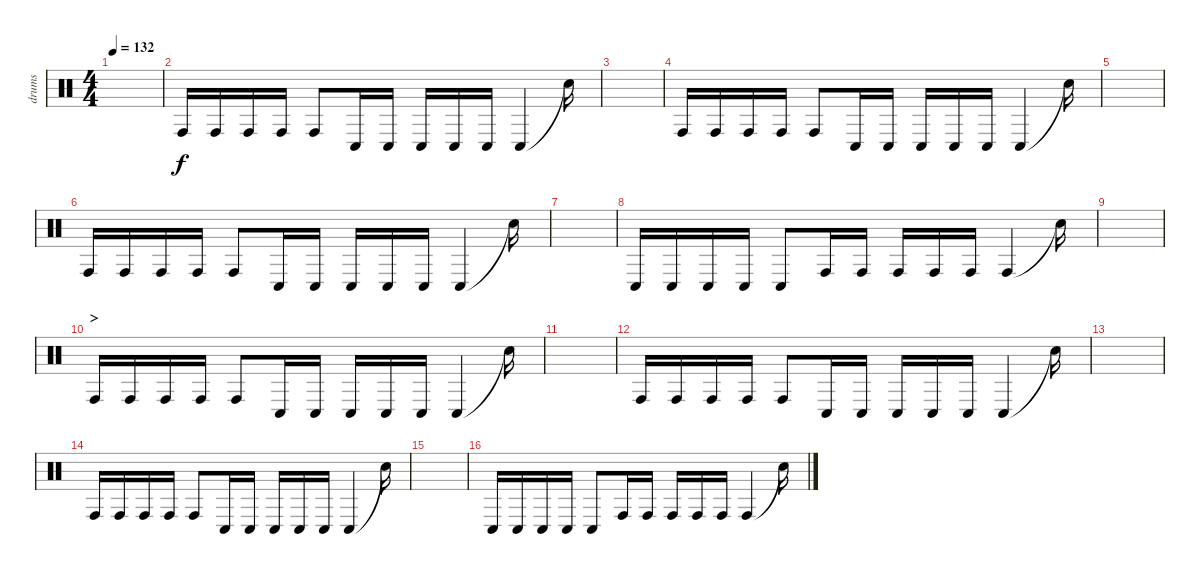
\track ("drums" "drums") {instrument percussion}
\staff {score}
\articulation defaults
\ts (4 4)
\tempo 132
\clef neutral
\ks c
|
"Conga high (hit)".16 "Conga high (hit)".16 "Conga high (hit)".16 "Conga high (hit)".16 "Conga high (hit)".8 "Conga low (hit)".16 "Conga low (hit)".16 "Conga low (hit)".16 "Conga low (hit)".16 "Conga low (hit)".16 "Conga low (hit)".4 "Snare (hit)"{t}.16 |
|
"Conga high (hit)".16 "Conga high (hit)".16 "Conga high (hit)".16 "Conga high (hit)".16 "Conga high (hit)".8 "Conga low (hit)".16 "Conga low (hit)".16 "Conga low (hit)".16 "Conga low (hit)".16 "Conga low (hit)".16 "Conga low (hit)".4 "Snare (hit)"{t}.16 |
|
"Conga high (hit)".16 "Conga high (hit)".16 "Conga high (hit)".16 "Conga high (hit)".16 "Conga high (hit)".8 "Conga low (hit)".16 "Conga low (hit)".16 "Conga low (hit)".16 "Conga low (hit)".16 "Conga low (hit)".16 "Conga low (hit)".4 "Snare (hit)"{t}.16 |
|
"Conga low (hit)".16 "Conga low (hit)".16 "Conga low (hit)".16 "Conga low (hit)".16 "Conga low (hit)".8 "Conga high (hit)".16 "Conga high (hit)".16 "Conga high (hit)".16 "Conga high (hit)".16 "Conga high (hit)".16 "Conga high (hit)".4 "Snare (hit)"{t}.16 |
|
\section ("" ">")
"Conga high (hit)".16 "Conga high (hit)".16 "Conga high (hit)".16 "Conga high (hit)".16 "Conga high (hit)".8 "Conga low (hit)".16 "Conga low (hit)".16 "Conga low (hit)".16 "Conga low (hit)".16 "Conga low (hit)".16 "Conga low (hit)".4 "Snare (hit)"{t}.16 |
|
"Conga high (hit)".16 "Conga high (hit)".16 "Conga high (hit)".16 "Conga high (hit)".16 "Conga high (hit)".8 "Conga low (hit)".16 "Conga low (hit)".16 "Conga low (hit)".16 "Conga low (hit)".16 "Conga low (hit)".16 "Conga low (hit)".4 "Snare (hit)"{t}.16 |
|
"Conga high (hit)".16 "Conga high (hit)".16 "Conga high (hit)".16 "Conga high (hit)".16 "Conga high (hit)".8 "Conga low (hit)".16 "Conga low (hit)".16 "Conga low (hit)".16 "Conga low (hit)".16 "Conga low (hit)".16 "Conga low (hit)".4 "Snare (hit)"{t}.16 |
|
"Conga low (hit)".16 "Conga low (hit)".16 "Conga low (hit)".16 "Conga low (hit)".16 "Conga low (hit)".8 "Conga high (hit)".16 "Conga high (hit)".16 "Conga high (hit)".16 "Conga high (hit)".16 "Conga high (hit)".16 "Conga high (hit)".4 "Snare (hit)"{t}.16
